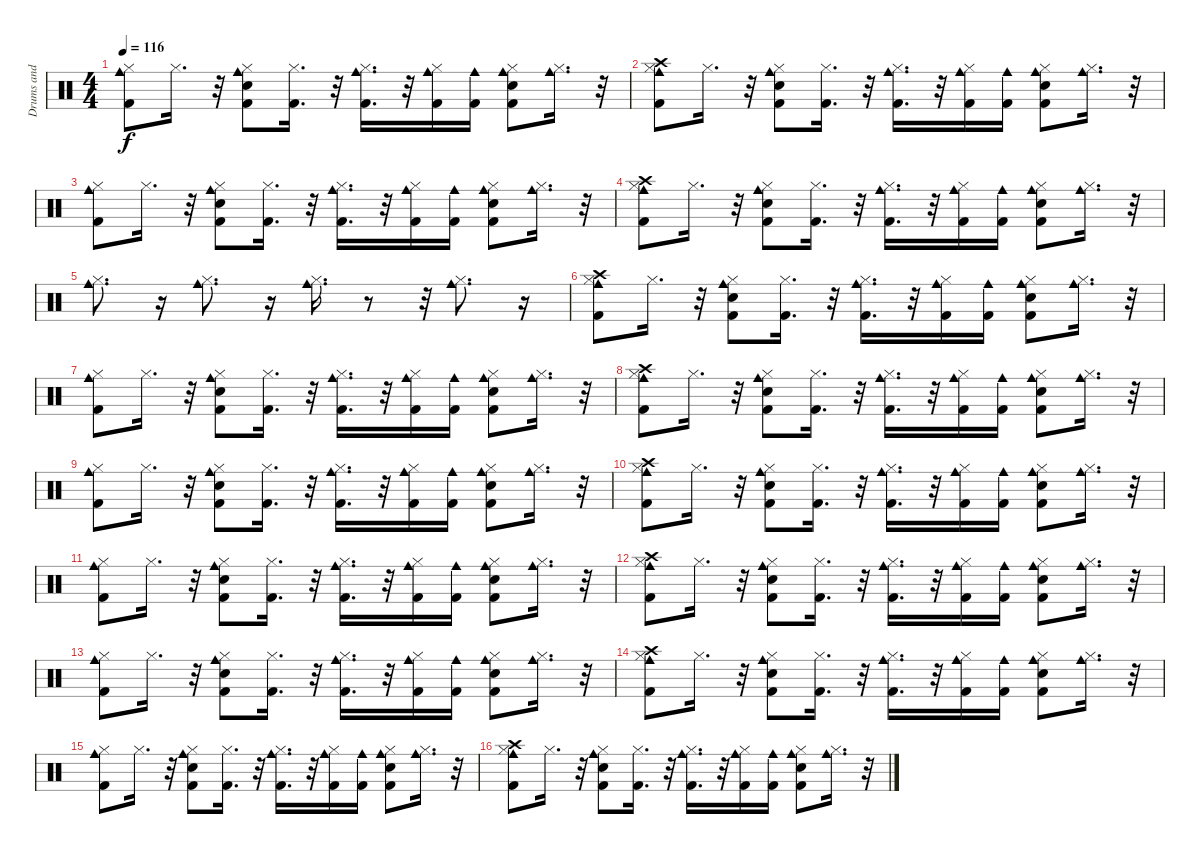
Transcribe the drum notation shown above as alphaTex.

\track ("Drums and Cowbell" "Drums and ") {instrument percussion}
\staff {score}
\articulation defaults
\ts (4 4)
\tempo 116
\clef neutral
\ks c
("Kick (hit) 2" "Hi-Hat (closed)" "Cowbell medium (hit)").8{dy f} "Hi-Hat (closed)".16{d} r.32 ("Snare (hit) 2" "Kick (hit) 2" "Hi-Hat (closed)" "Cowbell medium (hit)").8 ("Kick (hit) 2" "Hi-Hat (closed)").16{d} r.32 ("Hi-Hat (closed)" "Kick (hit) 2" "Cowbell medium (hit)").16{d} r.32 ("Kick (hit) 2" "Hi-Hat (closed)" "Cowbell medium (hit)").16 ("Kick (hit) 2" "Cowbell medium (hit)").16 ("Kick (hit) 2" "Snare (hit) 2" "Hi-Hat (closed)" "Cowbell medium (hit)").8 ("Hi-Hat (closed)" "Cowbell medium (hit)").16{d} r.32 |
("Kick (hit) 2" "Hi-Hat (closed)" "Cowbell medium (hit)" "Crash high (hit)").8 "Hi-Hat (closed)".16{d} r.32 ("Snare (hit) 2" "Kick (hit) 2" "Hi-Hat (closed)" "Cowbell medium (hit)").8 ("Kick (hit) 2" "Hi-Hat (closed)").16{d} r.32 ("Hi-Hat (closed)" "Kick (hit) 2" "Cowbell medium (hit)").16{d} r.32 ("Kick (hit) 2" "Hi-Hat (closed)" "Cowbell medium (hit)").16 ("Kick (hit) 2" "Cowbell medium (hit)").16 ("Kick (hit) 2" "Snare (hit) 2" "Hi-Hat (closed)" "Cowbell medium (hit)").8 ("Hi-Hat (closed)" "Cowbell medium (hit)").16{d} r.32 |
("Kick (hit) 2" "Hi-Hat (closed)" "Cowbell medium (hit)").8 "Hi-Hat (closed)".16{d} r.32 ("Snare (hit) 2" "Kick (hit) 2" "Hi-Hat (closed)" "Cowbell medium (hit)").8 ("Kick (hit) 2" "Hi-Hat (closed)").16{d} r.32 ("Hi-Hat (closed)" "Kick (hit) 2" "Cowbell medium (hit)").16{d} r.32 ("Kick (hit) 2" "Hi-Hat (closed)" "Cowbell medium (hit)").16 ("Kick (hit) 2" "Cowbell medium (hit)").16 ("Kick (hit) 2" "Snare (hit) 2" "Hi-Hat (closed)" "Cowbell medium (hit)").8 ("Hi-Hat (closed)" "Cowbell medium (hit)").16{d} r.32 |
("Kick (hit) 2" "Hi-Hat (closed)" "Cowbell medium (hit)" "Crash high (hit)").8 "Hi-Hat (closed)".16{d} r.32 ("Snare (hit) 2" "Kick (hit) 2" "Hi-Hat (closed)" "Cowbell medium (hit)").8 ("Kick (hit) 2" "Hi-Hat (closed)").16{d} r.32 ("Hi-Hat (closed)" "Kick (hit) 2" "Cowbell medium (hit)").16{d} r.32 ("Kick (hit) 2" "Hi-Hat (closed)" "Cowbell medium (hit)").16 ("Kick (hit) 2" "Cowbell medium (hit)").16 ("Kick (hit) 2" "Snare (hit) 2" "Hi-Hat (closed)" "Cowbell medium (hit)").8 ("Hi-Hat (closed)" "Cowbell medium (hit)").16{d} r.32 |
("Hi-Hat (closed)" "Cowbell medium (hit)").8{d} r.16 ("Hi-Hat (closed)" "Cowbell medium (hit)").8{d} r.16 ("Hi-Hat (closed)" "Cowbell medium (hit)").16{d} r.8 r.32 ("Hi-Hat (closed)" "Cowbell medium (hit)").8{d} r.16 |
("Kick (hit) 2" "Hi-Hat (closed)" "Crash high (hit)" "Cowbell medium (hit)").8 "Hi-Hat (closed)".16{d} r.32 ("Snare (hit) 2" "Kick (hit) 2" "Hi-Hat (closed)" "Cowbell medium (hit)").8 ("Kick (hit) 2" "Hi-Hat (closed)").16{d} r.32 ("Hi-Hat (closed)" "Kick (hit) 2" "Cowbell medium (hit)").16{d} r.32 ("Kick (hit) 2" "Hi-Hat (closed)" "Cowbell medium (hit)").16 ("Kick (hit) 2" "Cowbell medium (hit)").16 ("Kick (hit) 2" "Snare (hit) 2" "Hi-Hat (closed)" "Cowbell medium (hit)").8 ("Hi-Hat (closed)" "Cowbell medium (hit)").16{d} r.32 |
("Kick (hit) 2" "Hi-Hat (closed)" "Cowbell medium (hit)").8 "Hi-Hat (closed)".16{d} r.32 ("Snare (hit) 2" "Kick (hit) 2" "Hi-Hat (closed)" "Cowbell medium (hit)").8 ("Kick (hit) 2" "Hi-Hat (closed)").16{d} r.32 ("Hi-Hat (closed)" "Kick (hit) 2" "Cowbell medium (hit)").16{d} r.32 ("Kick (hit) 2" "Hi-Hat (closed)" "Cowbell medium (hit)").16 ("Kick (hit) 2" "Cowbell medium (hit)").16 ("Kick (hit) 2" "Snare (hit) 2" "Hi-Hat (closed)" "Cowbell medium (hit)").8 ("Hi-Hat (closed)" "Cowbell medium (hit)").16{d} r.32 |
("Kick (hit) 2" "Hi-Hat (closed)" "Crash high (hit)" "Cowbell medium (hit)").8 "Hi-Hat (closed)".16{d} r.32 ("Snare (hit) 2" "Kick (hit) 2" "Hi-Hat (closed)" "Cowbell medium (hit)").8 ("Kick (hit) 2" "Hi-Hat (closed)").16{d} r.32 ("Hi-Hat (closed)" "Kick (hit) 2" "Cowbell medium (hit)").16{d} r.32 ("Kick (hit) 2" "Hi-Hat (closed)" "Cowbell medium (hit)").16 ("Kick (hit) 2" "Cowbell medium (hit)").16 ("Kick (hit) 2" "Snare (hit) 2" "Hi-Hat (closed)" "Cowbell medium (hit)").8 ("Hi-Hat (closed)" "Cowbell medium (hit)").16{d} r.32 |
("Kick (hit) 2" "Hi-Hat (closed)" "Cowbell medium (hit)").8 "Hi-Hat (closed)".16{d} r.32 ("Snare (hit) 2" "Kick (hit) 2" "Hi-Hat (closed)" "Cowbell medium (hit)").8 ("Kick (hit) 2" "Hi-Hat (closed)").16{d} r.32 ("Hi-Hat (closed)" "Kick (hit) 2" "Cowbell medium (hit)").16{d} r.32 ("Kick (hit) 2" "Hi-Hat (closed)" "Cowbell medium (hit)").16 ("Kick (hit) 2" "Cowbell medium (hit)").16 ("Kick (hit) 2" "Snare (hit) 2" "Hi-Hat (closed)" "Cowbell medium (hit)").8 ("Hi-Hat (closed)" "Cowbell medium (hit)").16{d} r.32 |
("Kick (hit) 2" "Hi-Hat (closed)" "Crash high (hit)" "Cowbell medium (hit)").8 "Hi-Hat (closed)".16{d} r.32 ("Snare (hit) 2" "Kick (hit) 2" "Hi-Hat (closed)" "Cowbell medium (hit)").8 ("Kick (hit) 2" "Hi-Hat (closed)").16{d} r.32 ("Hi-Hat (closed)" "Kick (hit) 2" "Cowbell medium (hit)").16{d} r.32 ("Kick (hit) 2" "Hi-Hat (closed)" "Cowbell medium (hit)").16 ("Kick (hit) 2" "Cowbell medium (hit)").16 ("Kick (hit) 2" "Snare (hit) 2" "Hi-Hat (closed)" "Cowbell medium (hit)").8 ("Hi-Hat (closed)" "Cowbell medium (hit)").16{d} r.32 |
("Kick (hit) 2" "Hi-Hat (closed)" "Cowbell medium (hit)").8 "Hi-Hat (closed)".16{d} r.32 ("Snare (hit) 2" "Kick (hit) 2" "Hi-Hat (closed)" "Cowbell medium (hit)").8 ("Kick (hit) 2" "Hi-Hat (closed)").16{d} r.32 ("Hi-Hat (closed)" "Kick (hit) 2" "Cowbell medium (hit)").16{d} r.32 ("Kick (hit) 2" "Hi-Hat (closed)" "Cowbell medium (hit)").16 ("Kick (hit) 2" "Cowbell medium (hit)").16 ("Kick (hit) 2" "Snare (hit) 2" "Hi-Hat (closed)" "Cowbell medium (hit)").8 ("Hi-Hat (closed)" "Cowbell medium (hit)").16{d} r.32 |
("Kick (hit) 2" "Hi-Hat (closed)" "Cowbell medium (hit)" "Crash high (hit)").8 "Hi-Hat (closed)".16{d} r.32 ("Snare (hit) 2" "Kick (hit) 2" "Hi-Hat (closed)" "Cowbell medium (hit)").8 ("Kick (hit) 2" "Hi-Hat (closed)").16{d} r.32 ("Hi-Hat (closed)" "Kick (hit) 2" "Cowbell medium (hit)").16{d} r.32 ("Kick (hit) 2" "Hi-Hat (closed)" "Cowbell medium (hit)").16 ("Kick (hit) 2" "Cowbell medium (hit)").16 ("Kick (hit) 2" "Snare (hit) 2" "Hi-Hat (closed)" "Cowbell medium (hit)").8 ("Hi-Hat (closed)" "Cowbell medium (hit)").16{d} r.32 |
("Kick (hit) 2" "Hi-Hat (closed)" "Cowbell medium (hit)").8 "Hi-Hat (closed)".16{d} r.32 ("Snare (hit) 2" "Kick (hit) 2" "Hi-Hat (closed)" "Cowbell medium (hit)").8 ("Kick (hit) 2" "Hi-Hat (closed)").16{d} r.32 ("Hi-Hat (closed)" "Kick (hit) 2" "Cowbell medium (hit)").16{d} r.32 ("Kick (hit) 2" "Hi-Hat (closed)" "Cowbell medium (hit)").16 ("Kick (hit) 2" "Cowbell medium (hit)").16 ("Kick (hit) 2" "Snare (hit) 2" "Hi-Hat (closed)" "Cowbell medium (hit)").8 ("Hi-Hat (closed)" "Cowbell medium (hit)").16{d} r.32 |
("Kick (hit) 2" "Hi-Hat (closed)" "Crash high (hit)" "Cowbell medium (hit)").8 "Hi-Hat (closed)".16{d} r.32 ("Snare (hit) 2" "Kick (hit) 2" "Hi-Hat (closed)" "Cowbell medium (hit)").8 ("Kick (hit) 2" "Hi-Hat (closed)").16{d} r.32 ("Hi-Hat (closed)" "Kick (hit) 2" "Cowbell medium (hit)").16{d} r.32 ("Kick (hit) 2" "Hi-Hat (closed)" "Cowbell medium (hit)").16 ("Kick (hit) 2" "Cowbell medium (hit)").16 ("Kick (hit) 2" "Snare (hit) 2" "Hi-Hat (closed)" "Cowbell medium (hit)").8 ("Hi-Hat (closed)" "Cowbell medium (hit)").16{d} r.32 |
("Kick (hit) 2" "Hi-Hat (closed)" "Cowbell medium (hit)").8 "Hi-Hat (closed)".16{d} r.32 ("Snare (hit) 2" "Kick (hit) 2" "Hi-Hat (closed)" "Cowbell medium (hit)").8 ("Kick (hit) 2" "Hi-Hat (closed)").16{d} r.32 ("Hi-Hat (closed)" "Kick (hit) 2" "Cowbell medium (hit)").16{d} r.32 ("Kick (hit) 2" "Hi-Hat (closed)" "Cowbell medium (hit)").16 ("Kick (hit) 2" "Cowbell medium (hit)").16 ("Kick (hit) 2" "Snare (hit) 2" "Hi-Hat (closed)" "Cowbell medium (hit)").8 ("Hi-Hat (closed)" "Cowbell medium (hit)").16{d} r.32 |
("Kick (hit) 2" "Hi-Hat (closed)" "Cowbell medium (hit)" "Crash high (hit)").8 "Hi-Hat (closed)".16{d} r.32 ("Snare (hit) 2" "Kick (hit) 2" "Hi-Hat (closed)" "Cowbell medium (hit)").8 ("Kick (hit) 2" "Hi-Hat (closed)").16{d} r.32 ("Hi-Hat (closed)" "Kick (hit) 2" "Cowbell medium (hit)").16{d} r.32 ("Kick (hit) 2" "Hi-Hat (closed)" "Cowbell medium (hit)").16 ("Kick (hit) 2" "Cowbell medium (hit)").16 ("Kick (hit) 2" "Snare (hit) 2" "Hi-Hat (closed)" "Cowbell medium (hit)").8 ("Hi-Hat (closed)" "Cowbell medium (hit)").16{d} r.32
